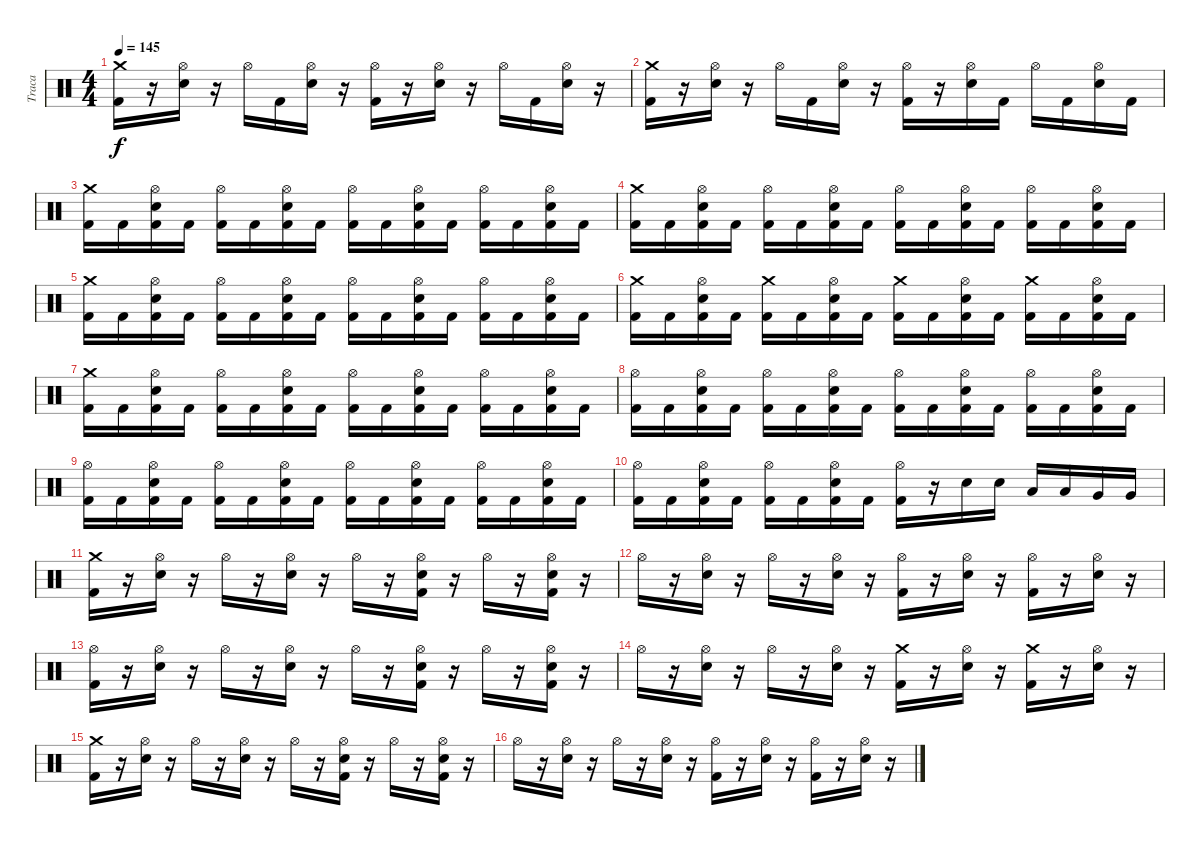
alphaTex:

\track ("Traca" "Traca") {instrument percussion}
\staff {score}
\articulation defaults
\ts (4 4)
\tempo 145
\clef neutral
\ks c
("Crash medium (hit)" "Kick (hit) 2").16{dy f} r.16 ("Hi-Hat (open)" "Snare (hit) 2").16 r.16 "Hi-Hat (open)".16 "Kick (hit) 2".16 ("Hi-Hat (open)" "Snare (hit) 2").16 r.16 ("Hi-Hat (open)" "Kick (hit) 2").16 r.16 ("Hi-Hat (open)" "Snare (hit) 2").16 r.16 "Hi-Hat (open)".16 "Kick (hit) 2".16 ("Hi-Hat (open)" "Snare (hit) 2").16 r.16 |
("Crash medium (hit)" "Kick (hit) 2").16 r.16 ("Hi-Hat (open)" "Snare (hit) 2").16 r.16 "Hi-Hat (open)".16 "Kick (hit) 2".16 ("Hi-Hat (open)" "Snare (hit) 2").16 r.16 ("Hi-Hat (open)" "Kick (hit) 2").16 r.16 ("Hi-Hat (open)" "Snare (hit) 2").16 "Kick (hit) 2".16 "Hi-Hat (open)".16 "Kick (hit) 2".16 ("Hi-Hat (open)" "Snare (hit) 2").16 "Kick (hit) 2".16 |
("Crash medium (hit)" "Kick (hit) 2").16 "Kick (hit) 2".16 ("Hi-Hat (open)" "Snare (hit) 2" "Kick (hit) 2").16 "Kick (hit) 2".16 ("Hi-Hat (open)" "Kick (hit) 2").16 "Kick (hit) 2".16 ("Hi-Hat (open)" "Snare (hit) 2" "Kick (hit) 2").16 "Kick (hit) 2".16 ("Hi-Hat (open)" "Kick (hit) 2").16 "Kick (hit) 2".16 ("Hi-Hat (open)" "Snare (hit) 2" "Kick (hit) 2").16 "Kick (hit) 2".16 ("Hi-Hat (open)" "Kick (hit) 2").16 "Kick (hit) 2".16 ("Hi-Hat (open)" "Snare (hit) 2" "Kick (hit) 2").16 "Kick (hit) 2".16 |
("Crash medium (hit)" "Kick (hit) 2").16 "Kick (hit) 2".16 ("Hi-Hat (open)" "Snare (hit) 2" "Kick (hit) 2").16 "Kick (hit) 2".16 ("Hi-Hat (open)" "Kick (hit) 2").16 "Kick (hit) 2".16 ("Hi-Hat (open)" "Snare (hit) 2" "Kick (hit) 2").16 "Kick (hit) 2".16 ("Hi-Hat (open)" "Kick (hit) 2").16 "Kick (hit) 2".16 ("Hi-Hat (open)" "Snare (hit) 2" "Kick (hit) 2").16 "Kick (hit) 2".16 ("Hi-Hat (open)" "Kick (hit) 2").16 "Kick (hit) 2".16 ("Hi-Hat (open)" "Snare (hit) 2" "Kick (hit) 2").16 "Kick (hit) 2".16 |
("Crash medium (hit)" "Kick (hit) 2").16 "Kick (hit) 2".16 ("Hi-Hat (open)" "Snare (hit) 2" "Kick (hit) 2").16 "Kick (hit) 2".16 ("Hi-Hat (open)" "Kick (hit) 2").16 "Kick (hit) 2".16 ("Hi-Hat (open)" "Snare (hit) 2" "Kick (hit) 2").16 "Kick (hit) 2".16 ("Hi-Hat (open)" "Kick (hit) 2").16 "Kick (hit) 2".16 ("Hi-Hat (open)" "Snare (hit) 2" "Kick (hit) 2").16 "Kick (hit) 2".16 ("Hi-Hat (open)" "Kick (hit) 2").16 "Kick (hit) 2".16 ("Hi-Hat (open)" "Snare (hit) 2" "Kick (hit) 2").16 "Kick (hit) 2".16 |
("Crash medium (hit)" "Kick (hit) 2").16 "Kick (hit) 2".16 ("Hi-Hat (open)" "Snare (hit) 2" "Kick (hit) 2").16 "Kick (hit) 2".16 ("Crash medium (hit)" "Kick (hit) 2").16 "Kick (hit) 2".16 ("Hi-Hat (open)" "Snare (hit) 2" "Kick (hit) 2").16 "Kick (hit) 2".16 ("Crash medium (hit)" "Kick (hit) 2").16 "Kick (hit) 2".16 ("Hi-Hat (open)" "Snare (hit) 2" "Kick (hit) 2").16 "Kick (hit) 2".16 ("Crash medium (hit)" "Kick (hit) 2").16 "Kick (hit) 2".16 ("Hi-Hat (open)" "Snare (hit) 2" "Kick (hit) 2").16 "Kick (hit) 2".16 |
("Crash medium (hit)" "Kick (hit) 2").16 "Kick (hit) 2".16 ("Hi-Hat (open)" "Snare (hit) 2" "Kick (hit) 2").16 "Kick (hit) 2".16 ("Hi-Hat (open)" "Kick (hit) 2").16 "Kick (hit) 2".16 ("Hi-Hat (open)" "Snare (hit) 2" "Kick (hit) 2").16 "Kick (hit) 2".16 ("Hi-Hat (open)" "Kick (hit) 2").16 "Kick (hit) 2".16 ("Hi-Hat (open)" "Snare (hit) 2" "Kick (hit) 2").16 "Kick (hit) 2".16 ("Hi-Hat (open)" "Kick (hit) 2").16 "Kick (hit) 2".16 ("Hi-Hat (open)" "Snare (hit) 2" "Kick (hit) 2").16 "Kick (hit) 2".16 |
("Hi-Hat (open)" "Kick (hit) 2").16 "Kick (hit) 2".16 ("Hi-Hat (open)" "Snare (hit) 2" "Kick (hit) 2").16 "Kick (hit) 2".16 ("Hi-Hat (open)" "Kick (hit) 2").16 "Kick (hit) 2".16 ("Hi-Hat (open)" "Snare (hit) 2" "Kick (hit) 2").16 "Kick (hit) 2".16 ("Hi-Hat (open)" "Kick (hit) 2").16 "Kick (hit) 2".16 ("Hi-Hat (open)" "Snare (hit) 2" "Kick (hit) 2").16 "Kick (hit) 2".16 ("Hi-Hat (open)" "Kick (hit) 2").16 "Kick (hit) 2".16 ("Hi-Hat (open)" "Snare (hit) 2" "Kick (hit) 2").16 "Kick (hit) 2".16 |
("Hi-Hat (open)" "Kick (hit) 2").16 "Kick (hit) 2".16 ("Hi-Hat (open)" "Snare (hit) 2" "Kick (hit) 2").16 "Kick (hit) 2".16 ("Hi-Hat (open)" "Kick (hit) 2").16 "Kick (hit) 2".16 ("Hi-Hat (open)" "Snare (hit) 2" "Kick (hit) 2").16 "Kick (hit) 2".16 ("Hi-Hat (open)" "Kick (hit) 2").16 "Kick (hit) 2".16 ("Hi-Hat (open)" "Snare (hit) 2" "Kick (hit) 2").16 "Kick (hit) 2".16 ("Hi-Hat (open)" "Kick (hit) 2").16 "Kick (hit) 2".16 ("Hi-Hat (open)" "Snare (hit) 2" "Kick (hit) 2").16 "Kick (hit) 2".16 |
("Hi-Hat (open)" "Kick (hit) 2").16 "Kick (hit) 2".16 ("Hi-Hat (open)" "Snare (hit) 2" "Kick (hit) 2").16 "Kick (hit) 2".16 ("Hi-Hat (open)" "Kick (hit) 2").16 "Kick (hit) 2".16 ("Hi-Hat (open)" "Snare (hit) 2" "Kick (hit) 2").16 "Kick (hit) 2".16 ("Hi-Hat (open)" "Kick (hit) 2").16 r.16 "Snare (hit) 2".16 "Snare (hit) 2".16 "Low Tom (hit)".16 "Low Tom (hit)".16 "Very Low Tom (hit)".16 "Very Low Tom (hit)".16 |
("Crash medium (hit)" "Kick (hit) 2").16 r.16 ("Hi-Hat (open)" "Snare (hit) 2").16 r.16 "Hi-Hat (open)".16 r.16 ("Hi-Hat (open)" "Snare (hit) 2").16 r.16 "Hi-Hat (open)".16 r.16 ("Hi-Hat (open)" "Snare (hit) 2" "Kick (hit) 2").16 r.16 "Hi-Hat (open)".16 r.16 ("Hi-Hat (open)" "Snare (hit) 2" "Kick (hit) 2").16 r.16 |
"Hi-Hat (open)".16 r.16 ("Hi-Hat (open)" "Snare (hit) 2").16 r.16 "Hi-Hat (open)".16 r.16 ("Hi-Hat (open)" "Snare (hit) 2").16 r.16 ("Hi-Hat (open)" "Kick (hit) 2").16 r.16 ("Hi-Hat (open)" "Snare (hit) 2").16 r.16 ("Hi-Hat (open)" "Kick (hit) 2").16 r.16 ("Hi-Hat (open)" "Snare (hit) 2").16 r.16 |
("Hi-Hat (open)" "Kick (hit) 2").16 r.16 ("Hi-Hat (open)" "Snare (hit) 2").16 r.16 "Hi-Hat (open)".16 r.16 ("Hi-Hat (open)" "Snare (hit) 2").16 r.16 "Hi-Hat (open)".16 r.16 ("Hi-Hat (open)" "Snare (hit) 2" "Kick (hit) 2").16 r.16 "Hi-Hat (open)".16 r.16 ("Hi-Hat (open)" "Snare (hit) 2" "Kick (hit) 2").16 r.16 |
"Hi-Hat (open)".16 r.16 ("Hi-Hat (open)" "Snare (hit) 2").16 r.16 "Hi-Hat (open)".16 r.16 ("Hi-Hat (open)" "Snare (hit) 2").16 r.16 ("Crash medium (hit)" "Kick (hit) 2").16 r.16 ("Hi-Hat (open)" "Snare (hit) 2").16 r.16 ("Crash medium (hit)" "Kick (hit) 2").16 r.16 ("Hi-Hat (open)" "Snare (hit) 2").16 r.16 |
("Crash medium (hit)" "Kick (hit) 2").16 r.16 ("Hi-Hat (open)" "Snare (hit) 2").16 r.16 "Hi-Hat (open)".16 r.16 ("Hi-Hat (open)" "Snare (hit) 2").16 r.16 "Hi-Hat (open)".16 r.16 ("Hi-Hat (open)" "Snare (hit) 2" "Kick (hit) 2").16 r.16 "Hi-Hat (open)".16 r.16 ("Hi-Hat (open)" "Snare (hit) 2" "Kick (hit) 2").16 r.16 |
"Hi-Hat (open)".16 r.16 ("Hi-Hat (open)" "Snare (hit) 2").16 r.16 "Hi-Hat (open)".16 r.16 ("Hi-Hat (open)" "Snare (hit) 2").16 r.16 ("Hi-Hat (open)" "Kick (hit) 2").16 r.16 ("Hi-Hat (open)" "Snare (hit) 2").16 r.16 ("Hi-Hat (open)" "Kick (hit) 2").16 r.16 ("Hi-Hat (open)" "Snare (hit) 2").16 r.16
